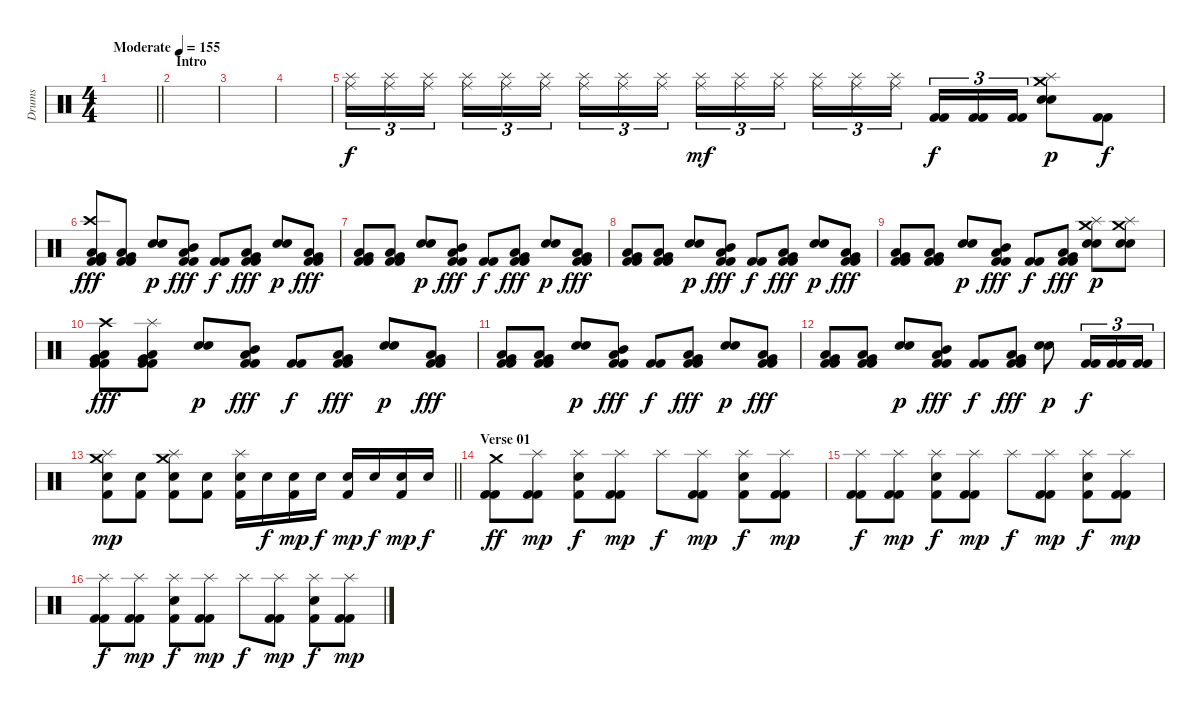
\track ("Drums" "Drums") {instrument percussion}
\staff {score}
\articulation defaults
\ts (4 4)
\tempo (155 "Moderate")
\clef neutral
\barLineRight lightlight
\ks c
|
\section ("" "Intro")
|
|
|
("Ride (middle)" "Splash (hit)").16{tu (3 2) volume 16} ("Ride (middle)" "Splash (hit)").16{tu (3 2)} ("Ride (middle)" "Splash (hit)").16{tu (3 2) beam splitsecondary} ("Ride (middle)" "Splash (hit)").16{tu (3 2)} ("Ride (middle)" "Splash (hit)").16{tu (3 2)} ("Ride (middle)" "Splash (hit)").16{tu (3 2)} ("Ride (middle)" "Splash (hit)").16{tu (3 2)} ("Ride (middle)" "Splash (hit)").16{tu (3 2)} ("Ride (middle)" "Splash (hit)").16{tu (3 2) beam splitsecondary} ("Ride (middle)" "Splash (hit)").16{tu (3 2) dy mf} ("Ride (middle)" "Splash (hit)").16{tu (3 2)} ("Ride (middle)" "Splash (hit)").16{tu (3 2)} ("Ride (middle)" "Splash (hit)").16{tu (3 2)} ("Ride (middle)" "Splash (hit)").16{tu (3 2)} ("Ride (middle)" "Splash (hit)").16{tu (3 2) beam splitsecondary} ("Kick (hit) 2" "Kick (hit) 2").16{tu (3 2) dy f} ("Kick (hit) 2" "Kick (hit) 2").16{tu (3 2)} ("Kick (hit) 2" "Kick (hit) 2").16{tu (3 2)} ("Crash medium (hit)" "Splash (hit)" "Snare (hit) 2" "Electric Snare (hit)").8{dy p} ("Kick (hit) 2" "Kick (hit) 2").8{dy f} |
("Crash high (hit)" "Very Low Tom (hit)" "Low Floor Tom (hit)" "Kick (hit) 2" "Kick (hit) 2").8{dy fff} ("Very Low Tom (hit)" "Low Floor Tom (hit)" "Kick (hit) 2" "Kick (hit) 2").8 ("Snare (hit) 2" "Electric Snare (hit)").8{dy p} ("Mid Tom (hit)" "Low Tom (hit)" "Kick (hit) 2" "Kick (hit) 2").8{dy fff} ("Kick (hit) 2" "Kick (hit) 2").8{dy f} ("Low Tom (hit)" "Very Low Tom (hit)" "Kick (hit) 2" "Kick (hit) 2").8{dy fff} ("Snare (hit) 2" "Electric Snare (hit)").8{dy p} ("Very Low Tom (hit)" "Low Floor Tom (hit)" "Kick (hit) 2" "Kick (hit) 2").8{dy fff} |
("Very Low Tom (hit)" "Low Floor Tom (hit)" "Kick (hit) 2" "Kick (hit) 2").8 ("Very Low Tom (hit)" "Low Floor Tom (hit)" "Kick (hit) 2" "Kick (hit) 2").8 ("Snare (hit) 2" "Electric Snare (hit)").8{dy p} ("Mid Tom (hit)" "Low Tom (hit)" "Kick (hit) 2" "Kick (hit) 2").8{dy fff} ("Kick (hit) 2" "Kick (hit) 2").8{dy f} ("Low Tom (hit)" "Very Low Tom (hit)" "Kick (hit) 2" "Kick (hit) 2").8{dy fff} ("Snare (hit) 2" "Electric Snare (hit)").8{dy p} ("Very Low Tom (hit)" "Low Floor Tom (hit)" "Kick (hit) 2" "Kick (hit) 2").8{dy fff} |
("Very Low Tom (hit)" "Low Floor Tom (hit)" "Kick (hit) 2" "Kick (hit) 2").8 ("Very Low Tom (hit)" "Low Floor Tom (hit)" "Kick (hit) 2" "Kick (hit) 2").8 ("Snare (hit) 2" "Electric Snare (hit)").8{dy p} ("Mid Tom (hit)" "Low Tom (hit)" "Kick (hit) 2" "Kick (hit) 2").8{dy fff} ("Kick (hit) 2" "Kick (hit) 2").8{dy f} ("Low Tom (hit)" "Very Low Tom (hit)" "Kick (hit) 2" "Kick (hit) 2").8{dy fff} ("Snare (hit) 2" "Electric Snare (hit)").8{dy p} ("Very Low Tom (hit)" "Low Floor Tom (hit)" "Kick (hit) 2" "Kick (hit) 2").8{dy fff} |
("Very Low Tom (hit)" "Low Floor Tom (hit)" "Kick (hit) 2" "Kick (hit) 2").8 ("Very Low Tom (hit)" "Low Floor Tom (hit)" "Kick (hit) 2" "Kick (hit) 2").8 ("Snare (hit) 2" "Electric Snare (hit)").8{dy p} ("Mid Tom (hit)" "Low Tom (hit)" "Kick (hit) 2" "Kick (hit) 2").8{dy fff} ("Kick (hit) 2" "Kick (hit) 2").8{dy f} ("Low Tom (hit)" "Very Low Tom (hit)" "Kick (hit) 2" "Kick (hit) 2").8{dy fff} ("Crash medium (hit)" "Splash (hit)" "Snare (hit) 2" "Electric Snare (hit)").8{dy p} ("Crash medium (hit)" "Splash (hit)" "Snare (hit) 2" "Electric Snare (hit)").8 |
("Crash high (hit)" "Very Low Tom (hit)" "Low Floor Tom (hit)" "Kick (hit) 2" "Kick (hit) 2").8{dy fff} ("Splash (hit)" "Very Low Tom (hit)" "Low Floor Tom (hit)" "Kick (hit) 2" "Kick (hit) 2").8 ("Snare (hit) 2" "Electric Snare (hit)").8{dy p} ("Mid Tom (hit)" "Low Tom (hit)" "Kick (hit) 2" "Kick (hit) 2").8{dy fff} ("Kick (hit) 2" "Kick (hit) 2").8{dy f} ("Low Tom (hit)" "Very Low Tom (hit)" "Kick (hit) 2" "Kick (hit) 2").8{dy fff} ("Snare (hit) 2" "Electric Snare (hit)").8{dy p} ("Very Low Tom (hit)" "Low Floor Tom (hit)" "Kick (hit) 2" "Kick (hit) 2").8{dy fff} |
("Very Low Tom (hit)" "Low Floor Tom (hit)" "Kick (hit) 2" "Kick (hit) 2").8 ("Very Low Tom (hit)" "Low Floor Tom (hit)" "Kick (hit) 2" "Kick (hit) 2").8 ("Snare (hit) 2" "Electric Snare (hit)").8{dy p} ("Mid Tom (hit)" "Low Tom (hit)" "Kick (hit) 2" "Kick (hit) 2").8{dy fff} ("Kick (hit) 2" "Kick (hit) 2").8{dy f} ("Low Tom (hit)" "Very Low Tom (hit)" "Kick (hit) 2" "Kick (hit) 2").8{dy fff} ("Snare (hit) 2" "Electric Snare (hit)").8{dy p} ("Very Low Tom (hit)" "Low Floor Tom (hit)" "Kick (hit) 2" "Kick (hit) 2").8{dy fff} |
("Very Low Tom (hit)" "Low Floor Tom (hit)" "Kick (hit) 2" "Kick (hit) 2").8 ("Very Low Tom (hit)" "Low Floor Tom (hit)" "Kick (hit) 2" "Kick (hit) 2").8 ("Snare (hit) 2" "Electric Snare (hit)").8{dy p} ("Mid Tom (hit)" "Low Tom (hit)" "Kick (hit) 2" "Kick (hit) 2").8{dy fff} ("Kick (hit) 2" "Kick (hit) 2").8{dy f} ("Low Tom (hit)" "Very Low Tom (hit)" "Kick (hit) 2" "Kick (hit) 2").8{dy fff} ("Snare (hit) 2" "Electric Snare (hit)").8{dy p} ("Kick (hit) 2" "Kick (hit) 2").16{tu (3 2) dy f} ("Kick (hit) 2" "Kick (hit) 2").16{tu (3 2)} ("Kick (hit) 2" "Kick (hit) 2").16{tu (3 2)} |
\barLineRight lightlight
("Crash medium (hit)" "Splash (hit)" "Electric Snare (hit)" "Kick (hit) 2").8{dy mp} ("Electric Snare (hit)" "Kick (hit) 2").8 ("Crash medium (hit)" "Splash (hit)" "Electric Snare (hit)" "Kick (hit) 2").8 ("Electric Snare (hit)" "Kick (hit) 2").8 ("Splash (hit)" "Electric Snare (hit)" "Kick (hit) 2").16 "Electric Snare (hit)".16{dy f} ("Electric Snare (hit)" "Kick (hit) 2").16{dy mp} "Electric Snare (hit)".16{dy f} ("Electric Snare (hit)" "Kick (hit) 2").16{dy mp} "Electric Snare (hit)".16{dy f} ("Electric Snare (hit)" "Kick (hit) 2").16{dy mp} "Electric Snare (hit)".16{dy f} |
\section ("" "Verse 01")
("Crash medium (hit)" "Kick (hit) 2" "Kick (hit) 2").8{dy ff} ("Splash (hit)" "Kick (hit) 2" "Kick (hit) 2").8{dy mp} ("Splash (hit)" "Electric Snare (hit)" "Kick (hit) 2").8{dy f} ("Splash (hit)" "Kick (hit) 2" "Kick (hit) 2").8{dy mp} "Splash (hit)".8{dy f} ("Splash (hit)" "Kick (hit) 2" "Kick (hit) 2").8{dy mp} ("Splash (hit)" "Electric Snare (hit)" "Kick (hit) 2").8{dy f} ("Splash (hit)" "Kick (hit) 2" "Kick (hit) 2").8{dy mp} |
("Splash (hit)" "Kick (hit) 2" "Kick (hit) 2").8{dy f} ("Splash (hit)" "Kick (hit) 2" "Kick (hit) 2").8{dy mp} ("Splash (hit)" "Electric Snare (hit)" "Kick (hit) 2").8{dy f} ("Splash (hit)" "Kick (hit) 2" "Kick (hit) 2").8{dy mp} "Splash (hit)".8{dy f} ("Splash (hit)" "Kick (hit) 2" "Kick (hit) 2").8{dy mp} ("Splash (hit)" "Electric Snare (hit)" "Kick (hit) 2").8{dy f} ("Splash (hit)" "Kick (hit) 2" "Kick (hit) 2").8{dy mp} |
("Splash (hit)" "Kick (hit) 2" "Kick (hit) 2").8{dy f} ("Splash (hit)" "Kick (hit) 2" "Kick (hit) 2").8{dy mp} ("Splash (hit)" "Electric Snare (hit)" "Kick (hit) 2").8{dy f} ("Splash (hit)" "Kick (hit) 2" "Kick (hit) 2").8{dy mp} "Splash (hit)".8{dy f} ("Splash (hit)" "Kick (hit) 2" "Kick (hit) 2").8{dy mp} ("Splash (hit)" "Electric Snare (hit)" "Kick (hit) 2").8{dy f} ("Splash (hit)" "Kick (hit) 2" "Kick (hit) 2").8{dy mp}
